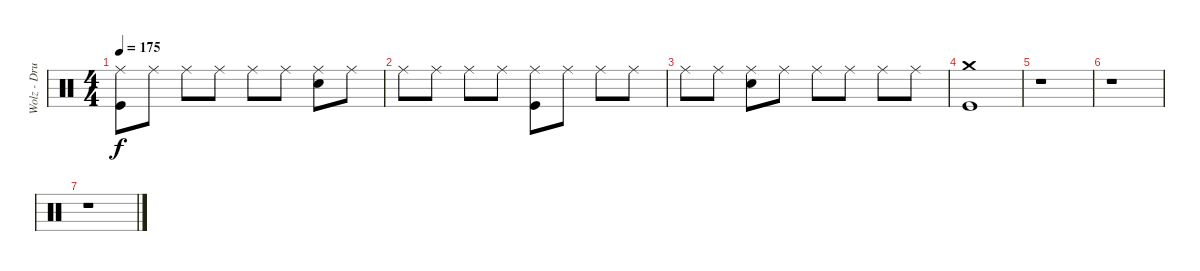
\track ("Wolz - Drums" "Wolz - Dru") {instrument percussion}
\staff {score}
\articulation defaults
\ts (4 4)
\tempo 175
\clef neutral
\ks c
("Ride (middle)" "Kick (hit)").8{dy f} "Ride (middle)".8 "Ride (middle)".8 "Ride (middle)".8 "Ride (middle)".8 "Ride (middle)".8 ("Ride (middle)" "Electric Snare (hit)").8 "Ride (middle)".8 |
"Ride (middle)".8 "Ride (middle)".8 "Ride (middle)".8 "Ride (middle)".8 ("Ride (middle)" "Kick (hit)").8 "Ride (middle)".8 "Ride (middle)".8 "Ride (middle)".8 |
"Ride (middle)".8 "Ride (middle)".8 ("Ride (middle)" "Electric Snare (hit)").8 "Ride (middle)".8 "Ride (middle)".8 "Ride (middle)".8 "Ride (middle)".8 "Ride (middle)".8 |
("Crash medium (hit)" "Kick (hit)").1 |
r.1 |
r.1 |
r.1
